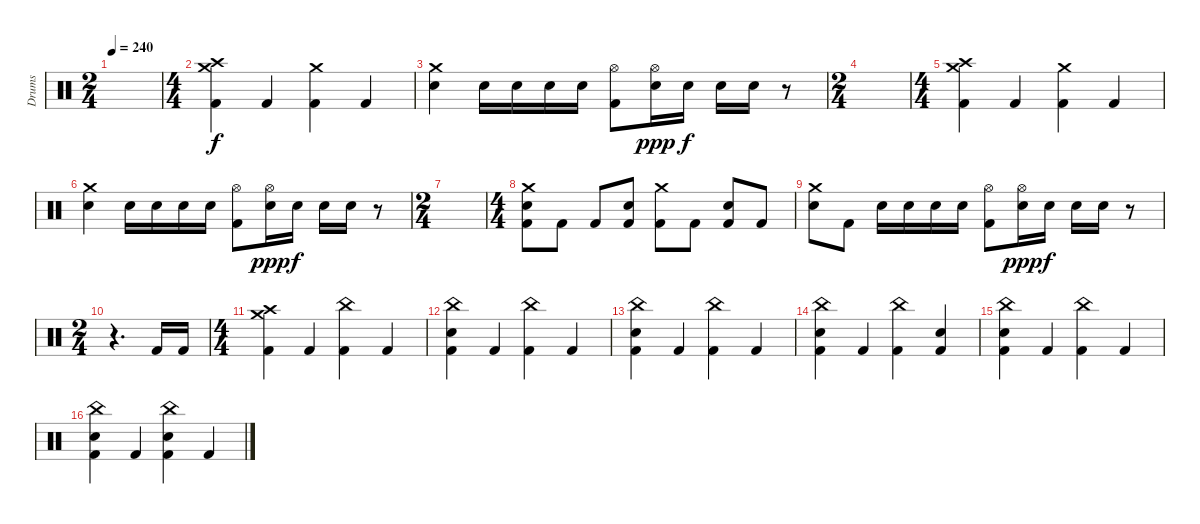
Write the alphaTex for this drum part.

\track ("Drums" "Drums") {instrument percussion}
\staff {score}
\articulation defaults
\ts (2 4)
\tempo 240
\clef neutral
\ks c
|
\ts (4 4)
("Crash medium (hit)" "Crash high (hit)" "Kick (hit) 2").4 "Kick (hit) 2".4 ("Crash medium (hit)" "Kick (hit) 2").4 "Kick (hit) 2".4 |
("Crash medium (hit)" "Electric Snare (hit)").4 "Electric Snare (hit)".16 "Electric Snare (hit)".16 "Electric Snare (hit)".16 "Electric Snare (hit)".16 ("Hi-Hat (open)" "Kick (hit) 2").8 ("Hi-Hat (open)" "Electric Snare (hit)").16{dy ppp} "Electric Snare (hit)".16{dy f} "Electric Snare (hit)".16 "Electric Snare (hit)".16 r.8 |
\ts (2 4)
|
\ts (4 4)
("Crash medium (hit)" "Crash high (hit)" "Kick (hit) 2").4 "Kick (hit) 2".4 ("Crash medium (hit)" "Kick (hit) 2").4 "Kick (hit) 2".4 |
("Crash medium (hit)" "Electric Snare (hit)").4 "Electric Snare (hit)".16 "Electric Snare (hit)".16 "Electric Snare (hit)".16 "Electric Snare (hit)".16 ("Hi-Hat (open)" "Kick (hit) 2").8 ("Hi-Hat (open)" "Electric Snare (hit)").16{dy ppp} "Electric Snare (hit)".16{dy f} "Electric Snare (hit)".16 "Electric Snare (hit)".16 r.8 |
\ts (2 4)
|
\ts (4 4)
("Crash medium (hit)" "Electric Snare (hit)" "Kick (hit) 2").8 "Kick (hit) 2".8 "Kick (hit) 2".8 ("Electric Snare (hit)" "Kick (hit) 2").8 ("Crash medium (hit)" "Kick (hit) 2").8 "Kick (hit) 2".8 ("Electric Snare (hit)" "Kick (hit) 2").8 "Kick (hit) 2".8 |
("Crash medium (hit)" "Electric Snare (hit)").8 "Kick (hit) 2".8 "Electric Snare (hit)".16 "Electric Snare (hit)".16 "Electric Snare (hit)".16 "Electric Snare (hit)".16 ("Hi-Hat (open)" "Kick (hit) 2").8 ("Hi-Hat (open)" "Electric Snare (hit)").16{dy ppp} "Electric Snare (hit)".16{dy f} "Electric Snare (hit)".16 "Electric Snare (hit)".16 r.8 |
\ts (2 4)
r.4{d} "Kick (hit) 2".16 "Kick (hit) 2".16 |
\ts (4 4)
("Crash medium (hit)" "Crash high (hit)" "Kick (hit) 2").4 "Kick (hit) 2".4 ("China (hit)" "Kick (hit) 2").4 "Kick (hit) 2".4 |
("China (hit)" "Electric Snare (hit)" "Kick (hit) 2").4 "Kick (hit) 2".4 ("China (hit)" "Kick (hit) 2").4 "Kick (hit) 2".4 |
("China (hit)" "Electric Snare (hit)" "Kick (hit) 2").4 "Kick (hit) 2".4 ("China (hit)" "Kick (hit) 2").4 "Kick (hit) 2".4 |
("China (hit)" "Electric Snare (hit)" "Kick (hit) 2").4 "Kick (hit) 2".4 ("China (hit)" "Kick (hit) 2").4 ("Electric Snare (hit)" "Kick (hit) 2").4 |
("China (hit)" "Electric Snare (hit)" "Kick (hit) 2").4 "Kick (hit) 2".4 ("China (hit)" "Kick (hit) 2").4 "Kick (hit) 2".4 |
("China (hit)" "Electric Snare (hit)" "Kick (hit) 2").4 "Kick (hit) 2".4 ("China (hit)" "Electric Snare (hit)" "Kick (hit) 2").4 "Kick (hit) 2".4
